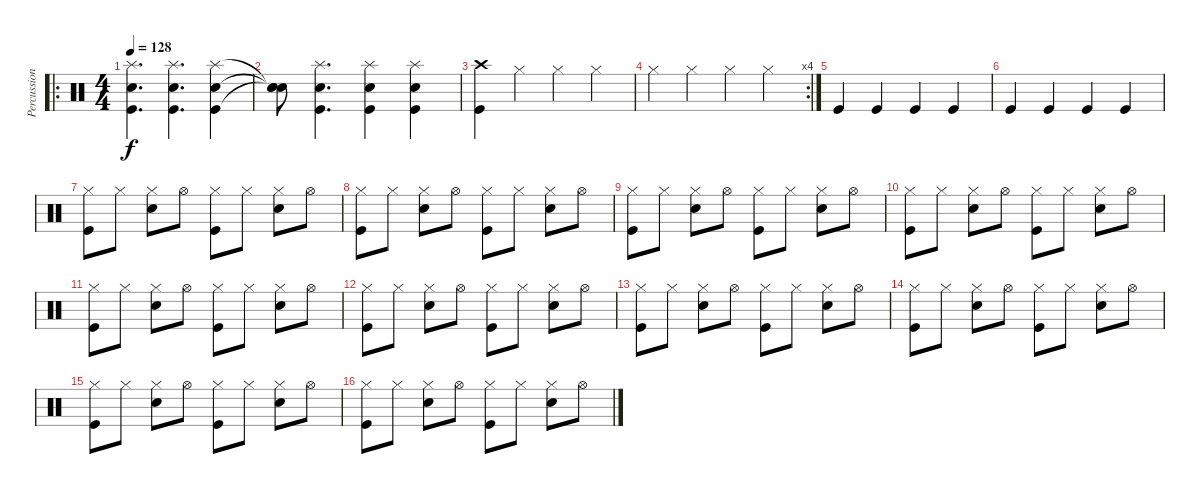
\track ("Percussion" "Percussion") {instrument percussion}
\staff {score}
\articulation defaults
\ro
\ts (4 4)
\tempo 128
\clef neutral
\ks c
("Snare (hit) 2" "Kick (hit)" "Splash (hit)").4{d dy f} ("Snare (hit) 2" "Kick (hit)" "Splash (hit)").4{d} ("Snare (hit) 2" "Kick (hit)" "Splash (hit)").4 |
("Snare (hit)"{t} "Snare (hit)"{t} "Snare (hit)"{t}).8 ("Snare (hit) 2" "Kick (hit)" "Splash (hit)").4{d} ("Snare (hit) 2" "Kick (hit)" "Splash (hit)").4 ("Snare (hit) 2" "Kick (hit)" "Splash (hit)").4 |
("Kick (hit)" "Crash high (hit)").4 "Hi-Hat (closed)".4 "Hi-Hat (closed)".4 "Hi-Hat (closed)".4 |
\rc 4 "Hi-Hat (closed)".4 "Hi-Hat (closed)".4 "Hi-Hat (closed)".4 "Hi-Hat (closed)".4
|
"Kick (hit)".4 "Kick (hit)".4 "Kick (hit)".4 "Kick (hit)".4 |
"Kick (hit)".4 "Kick (hit)".4 "Kick (hit)".4 "Kick (hit)".4 |
("Hi-Hat (closed)" "Kick (hit)").8 "Hi-Hat (closed)".8 ("Hi-Hat (closed)" "Snare (hit) 2").8 "Hi-Hat (open)".8 ("Hi-Hat (closed)" "Kick (hit)").8 "Hi-Hat (closed)".8 ("Hi-Hat (closed)" "Snare (hit) 2").8 "Hi-Hat (open)".8 |
("Hi-Hat (closed)" "Kick (hit)").8 "Hi-Hat (closed)".8 ("Hi-Hat (closed)" "Snare (hit) 2").8 "Hi-Hat (open)".8 ("Hi-Hat (closed)" "Kick (hit)").8 "Hi-Hat (closed)".8 ("Hi-Hat (closed)" "Snare (hit) 2").8 "Hi-Hat (open)".8 |
("Hi-Hat (closed)" "Kick (hit)").8 "Hi-Hat (closed)".8 ("Hi-Hat (closed)" "Snare (hit) 2").8 "Hi-Hat (open)".8 ("Hi-Hat (closed)" "Kick (hit)").8 "Hi-Hat (closed)".8 ("Hi-Hat (closed)" "Snare (hit) 2").8 "Hi-Hat (open)".8 |
("Hi-Hat (closed)" "Kick (hit)").8 "Hi-Hat (closed)".8 ("Hi-Hat (closed)" "Snare (hit) 2").8 "Hi-Hat (open)".8 ("Hi-Hat (closed)" "Kick (hit)").8 "Hi-Hat (closed)".8 ("Hi-Hat (closed)" "Snare (hit) 2").8 "Hi-Hat (open)".8 |
("Hi-Hat (closed)" "Kick (hit)").8 "Hi-Hat (closed)".8 ("Hi-Hat (closed)" "Snare (hit) 2").8 "Hi-Hat (open)".8 ("Hi-Hat (closed)" "Kick (hit)").8 "Hi-Hat (closed)".8 ("Hi-Hat (closed)" "Snare (hit) 2").8 "Hi-Hat (open)".8 |
("Hi-Hat (closed)" "Kick (hit)").8 "Hi-Hat (closed)".8 ("Hi-Hat (closed)" "Snare (hit) 2").8 "Hi-Hat (open)".8 ("Hi-Hat (closed)" "Kick (hit)").8 "Hi-Hat (closed)".8 ("Hi-Hat (closed)" "Snare (hit) 2").8 "Hi-Hat (open)".8 |
("Hi-Hat (closed)" "Kick (hit)").8 "Hi-Hat (closed)".8 ("Hi-Hat (closed)" "Snare (hit) 2").8 "Hi-Hat (open)".8 ("Hi-Hat (closed)" "Kick (hit)").8 "Hi-Hat (closed)".8 ("Hi-Hat (closed)" "Snare (hit) 2").8 "Hi-Hat (open)".8 |
("Hi-Hat (closed)" "Kick (hit)").8 "Hi-Hat (closed)".8 ("Hi-Hat (closed)" "Snare (hit) 2").8 "Hi-Hat (open)".8 ("Hi-Hat (closed)" "Kick (hit)").8 "Hi-Hat (closed)".8 ("Hi-Hat (closed)" "Snare (hit) 2").8 "Hi-Hat (open)".8 |
("Hi-Hat (closed)" "Kick (hit)").8 "Hi-Hat (closed)".8 ("Hi-Hat (closed)" "Snare (hit) 2").8 "Hi-Hat (open)".8 ("Hi-Hat (closed)" "Kick (hit)").8 "Hi-Hat (closed)".8 ("Hi-Hat (closed)" "Snare (hit) 2").8 "Hi-Hat (open)".8 |
("Hi-Hat (closed)" "Kick (hit)").8 "Hi-Hat (closed)".8 ("Hi-Hat (closed)" "Snare (hit) 2").8 "Hi-Hat (open)".8 ("Hi-Hat (closed)" "Kick (hit)").8 "Hi-Hat (closed)".8 ("Hi-Hat (closed)" "Snare (hit) 2").8 "Hi-Hat (open)".8
